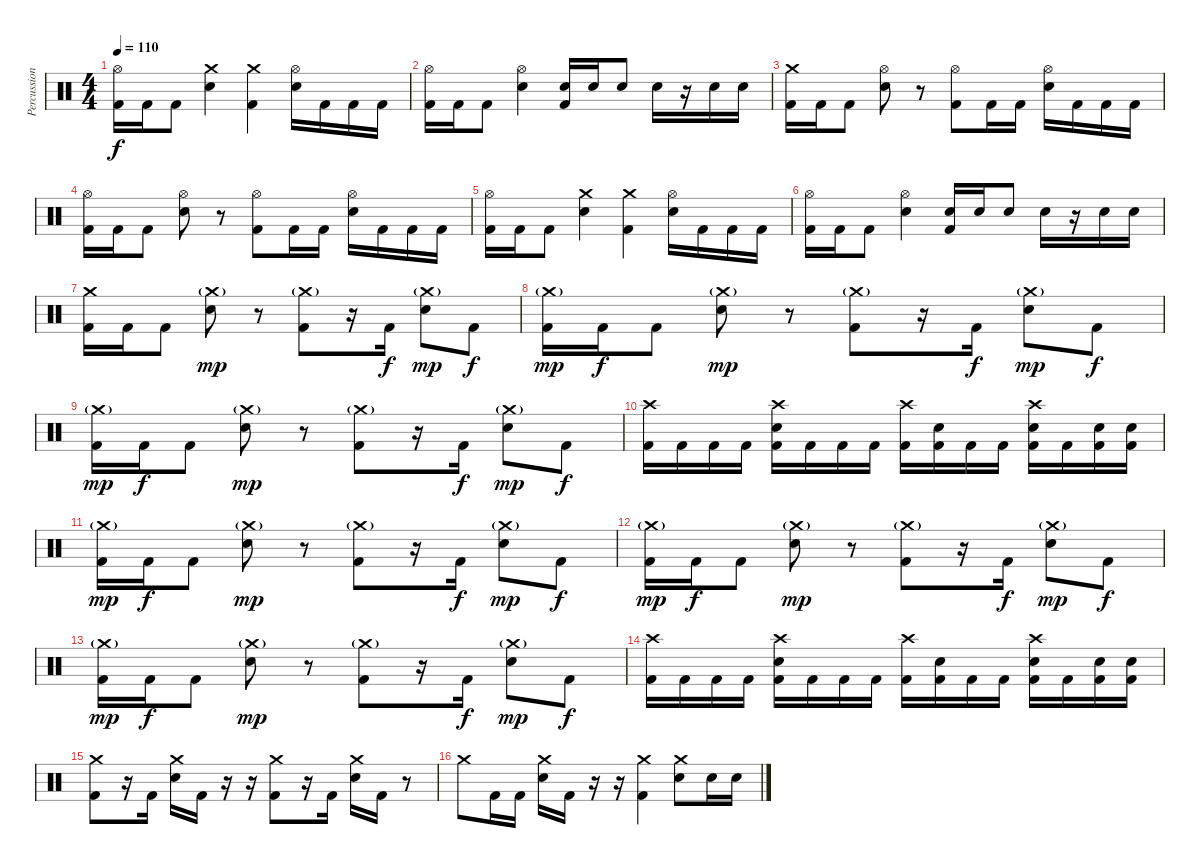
\track ("Percussion" "Percussion") {instrument percussion}
\staff {score}
\articulation defaults
\ts (4 4)
\tempo 110
\clef neutral
\ks c
("Hi-Hat (open)" "Kick (hit) 2").16{dy f} "Kick (hit) 2".16 "Kick (hit) 2".8 ("Crash medium (hit)" "Electric Snare (hit)").4 ("Crash medium (hit)" "Kick (hit) 2").4 ("Hi-Hat (open)" "Electric Snare (hit)").16 "Kick (hit) 2".16 "Kick (hit) 2".16 "Kick (hit) 2".16 |
("Hi-Hat (open)" "Kick (hit) 2").16 "Kick (hit) 2".16 "Kick (hit) 2".8 ("Hi-Hat (open)" "Electric Snare (hit)").4 ("Electric Snare (hit)" "Kick (hit) 2").16 "Electric Snare (hit)".16 "Electric Snare (hit)".8 "Electric Snare (hit)".16 r.16 "Electric Snare (hit)".16 "Electric Snare (hit)".16 |
("Crash medium (hit)" "Kick (hit) 2").16 "Kick (hit) 2".16 "Kick (hit) 2".8 ("Hi-Hat (open)" "Electric Snare (hit)").8 r.8 ("Hi-Hat (open)" "Kick (hit) 2").8 "Kick (hit) 2".16 "Kick (hit) 2".16 ("Hi-Hat (open)" "Electric Snare (hit)").16 "Kick (hit) 2".16 "Kick (hit) 2".16 "Kick (hit) 2".16 |
("Hi-Hat (open)" "Kick (hit) 2").16 "Kick (hit) 2".16 "Kick (hit) 2".8 ("Hi-Hat (open)" "Electric Snare (hit)").8 r.8 ("Hi-Hat (open)" "Kick (hit) 2").8 "Kick (hit) 2".16 "Kick (hit) 2".16 ("Hi-Hat (open)" "Electric Snare (hit)").16 "Kick (hit) 2".16 "Kick (hit) 2".16 "Kick (hit) 2".16 |
("Hi-Hat (open)" "Kick (hit) 2").16 "Kick (hit) 2".16 "Kick (hit) 2".8 ("Crash medium (hit)" "Electric Snare (hit)").4 ("Crash medium (hit)" "Kick (hit) 2").4 ("Hi-Hat (open)" "Electric Snare (hit)").16 "Kick (hit) 2".16 "Kick (hit) 2".16 "Kick (hit) 2".16 |
("Hi-Hat (open)" "Kick (hit) 2").16 "Kick (hit) 2".16 "Kick (hit) 2".8 ("Hi-Hat (open)" "Electric Snare (hit)").4 ("Electric Snare (hit)" "Kick (hit) 2").16 "Electric Snare (hit)".16 "Electric Snare (hit)".8 "Electric Snare (hit)".16 r.16 "Electric Snare (hit)".16 "Electric Snare (hit)".16 |
("Crash medium (hit)" "Kick (hit) 2").16 "Kick (hit) 2".16 "Kick (hit) 2".8 ("Crash medium (hit)"{g} "Electric Snare (hit)").8{dy mp} r.8 ("Crash medium (hit)"{g} "Kick (hit) 2").8 r.16 "Kick (hit) 2".16{dy f} ("Crash medium (hit)"{g} "Electric Snare (hit)").8{dy mp} "Kick (hit) 2".8{dy f} |
("Crash medium (hit)"{g} "Kick (hit) 2").16{dy mp} "Kick (hit) 2".16{dy f} "Kick (hit) 2".8 ("Crash medium (hit)"{g} "Electric Snare (hit)").8{dy mp} r.8 ("Crash medium (hit)"{g} "Kick (hit) 2").8 r.16 "Kick (hit) 2".16{dy f} ("Crash medium (hit)"{g} "Electric Snare (hit)").8{dy mp} "Kick (hit) 2".8{dy f} |
("Crash medium (hit)"{g} "Kick (hit) 2").16{dy mp} "Kick (hit) 2".16{dy f} "Kick (hit) 2".8 ("Crash medium (hit)"{g} "Electric Snare (hit)").8{dy mp} r.8 ("Crash medium (hit)"{g} "Kick (hit) 2").8 r.16 "Kick (hit) 2".16{dy f} ("Crash medium (hit)"{g} "Electric Snare (hit)").8{dy mp} "Kick (hit) 2".8{dy f} |
("Crash high (hit)" "Kick (hit) 2").16 "Kick (hit) 2".16 "Kick (hit) 2".16 "Kick (hit) 2".16 ("Crash high (hit)" "Electric Snare (hit)" "Kick (hit) 2").16 "Kick (hit) 2".16 "Kick (hit) 2".16 "Kick (hit) 2".16 ("Crash high (hit)" "Kick (hit) 2").16 ("Electric Snare (hit)" "Kick (hit) 2").16 "Kick (hit) 2".16 "Kick (hit) 2".16 ("Crash high (hit)" "Electric Snare (hit)" "Kick (hit) 2").16 "Kick (hit) 2".16 ("Electric Snare (hit)" "Kick (hit) 2").16 ("Electric Snare (hit)" "Kick (hit) 2").16 |
("Crash medium (hit)"{g} "Kick (hit) 2").16{dy mp} "Kick (hit) 2".16{dy f} "Kick (hit) 2".8 ("Crash medium (hit)"{g} "Electric Snare (hit)").8{dy mp} r.8 ("Crash medium (hit)"{g} "Kick (hit) 2").8 r.16 "Kick (hit) 2".16{dy f} ("Crash medium (hit)"{g} "Electric Snare (hit)").8{dy mp} "Kick (hit) 2".8{dy f} |
("Crash medium (hit)"{g} "Kick (hit) 2").16{dy mp} "Kick (hit) 2".16{dy f} "Kick (hit) 2".8 ("Crash medium (hit)"{g} "Electric Snare (hit)").8{dy mp} r.8 ("Crash medium (hit)"{g} "Kick (hit) 2").8 r.16 "Kick (hit) 2".16{dy f} ("Crash medium (hit)"{g} "Electric Snare (hit)").8{dy mp} "Kick (hit) 2".8{dy f} |
("Crash medium (hit)"{g} "Kick (hit) 2").16{dy mp} "Kick (hit) 2".16{dy f} "Kick (hit) 2".8 ("Crash medium (hit)"{g} "Electric Snare (hit)").8{dy mp} r.8 ("Crash medium (hit)"{g} "Kick (hit) 2").8 r.16 "Kick (hit) 2".16{dy f} ("Crash medium (hit)"{g} "Electric Snare (hit)").8{dy mp} "Kick (hit) 2".8{dy f} |
("Crash high (hit)" "Kick (hit) 2").16 "Kick (hit) 2".16 "Kick (hit) 2".16 "Kick (hit) 2".16 ("Crash high (hit)" "Electric Snare (hit)" "Kick (hit) 2").16 "Kick (hit) 2".16 "Kick (hit) 2".16 "Kick (hit) 2".16 ("Crash high (hit)" "Kick (hit) 2").16 ("Electric Snare (hit)" "Kick (hit) 2").16 "Kick (hit) 2".16 "Kick (hit) 2".16 ("Crash high (hit)" "Electric Snare (hit)" "Kick (hit) 2").16 "Kick (hit) 2".16 ("Electric Snare (hit)" "Kick (hit) 2").16 ("Electric Snare (hit)" "Kick (hit) 2").16 |
("Crash medium (hit)" "Kick (hit) 2").8 r.16 "Kick (hit) 2".16 ("Crash medium (hit)" "Electric Snare (hit)").16 "Kick (hit) 2".16 r.16 r.16 ("Crash medium (hit)" "Kick (hit) 2").8 r.16 "Kick (hit) 2".16 ("Crash medium (hit)" "Electric Snare (hit)").16 "Kick (hit) 2".16 r.8 |
"Crash medium (hit)".8 "Kick (hit) 2".16 "Kick (hit) 2".16 ("Crash medium (hit)" "Electric Snare (hit)").16 "Kick (hit) 2".16 r.16 r.16 ("Crash medium (hit)" "Kick (hit) 2").4 ("Crash medium (hit)" "Electric Snare (hit)").8 "Electric Snare (hit)".16 "Electric Snare (hit)".16
